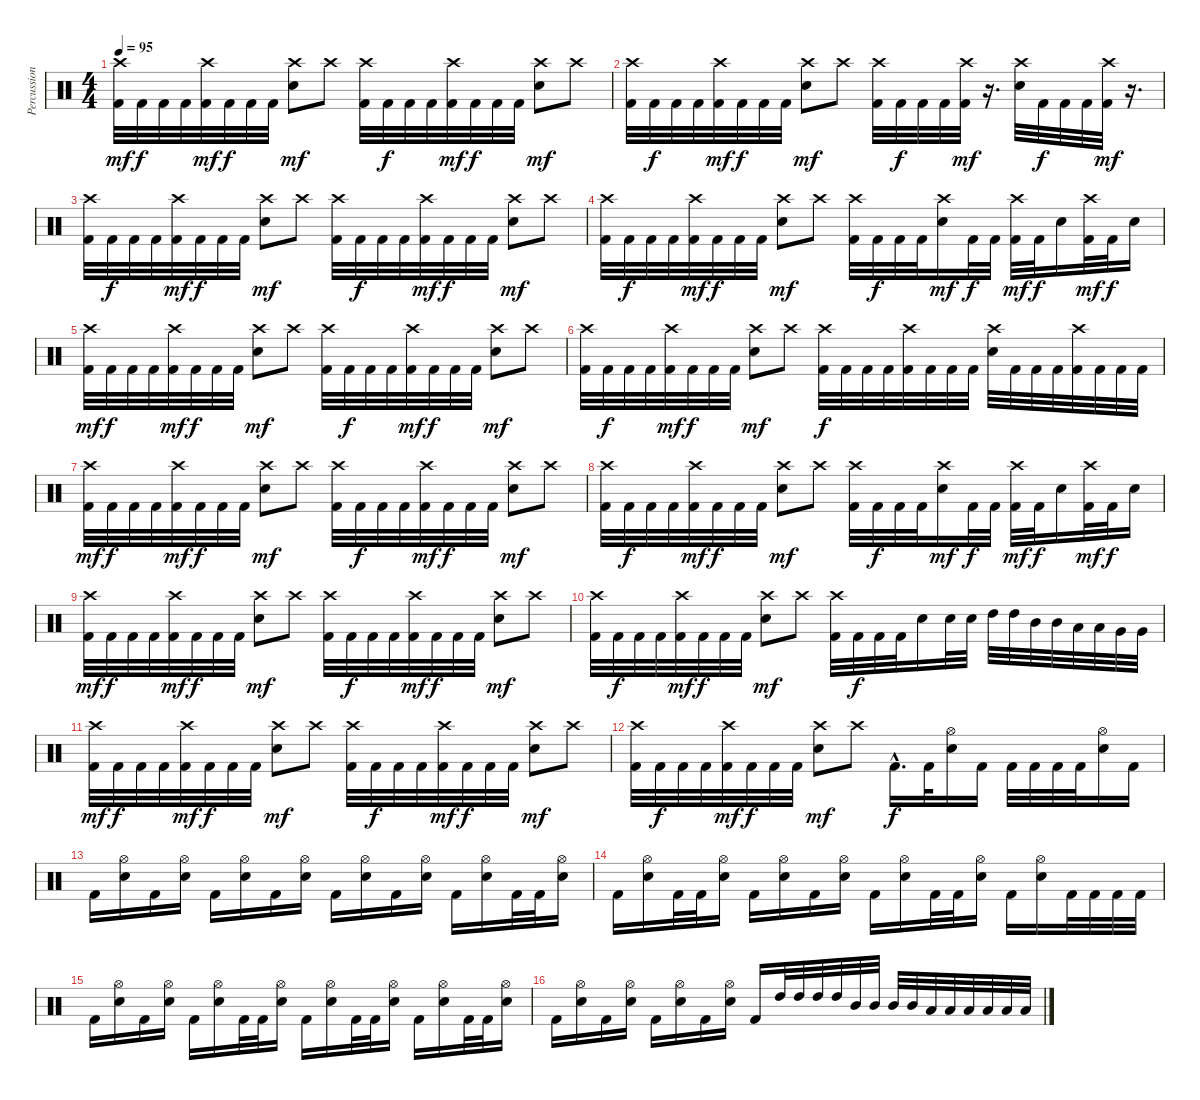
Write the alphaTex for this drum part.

\track ("Percussion" "Percussion") {instrument percussion}
\staff {score}
\articulation defaults
\ts (4 4)
\tempo 95
\clef neutral
\ks c
("Crash high (hit)" "Kick (hit) 2").32{dy mf} "Kick (hit) 2".32{dy f} "Kick (hit) 2".32 "Kick (hit) 2".32 ("Crash high (hit)" "Kick (hit) 2").32{dy mf} "Kick (hit) 2".32{dy f} "Kick (hit) 2".32 "Kick (hit) 2".32 ("Crash high (hit)" "Electric Snare (hit)").8{dy mf} "Crash high (hit)".8 ("Crash high (hit)" "Kick (hit) 2").32 "Kick (hit) 2".32{dy f} "Kick (hit) 2".32 "Kick (hit) 2".32 ("Crash high (hit)" "Kick (hit) 2").32{dy mf} "Kick (hit) 2".32{dy f} "Kick (hit) 2".32 "Kick (hit) 2".32 ("Crash high (hit)" "Electric Snare (hit)").8{dy mf} "Crash high (hit)".8 |
("Crash high (hit)" "Kick (hit) 2").32 "Kick (hit) 2".32{dy f} "Kick (hit) 2".32 "Kick (hit) 2".32 ("Crash high (hit)" "Kick (hit) 2").32{dy mf} "Kick (hit) 2".32{dy f} "Kick (hit) 2".32 "Kick (hit) 2".32 ("Crash high (hit)" "Electric Snare (hit)").8{dy mf} "Crash high (hit)".8 ("Crash high (hit)" "Kick (hit) 2").32 "Kick (hit) 2".32{dy f} "Kick (hit) 2".32 "Kick (hit) 2".32 ("Crash high (hit)" "Kick (hit) 2").32{dy mf} r.16{d} ("Crash high (hit)" "Electric Snare (hit)").32 "Kick (hit) 2".32{dy f} "Kick (hit) 2".32 "Kick (hit) 2".32 ("Crash high (hit)" "Kick (hit) 2").32{dy mf} r.16{d} |
("Crash high (hit)" "Kick (hit) 2").32 "Kick (hit) 2".32{dy f} "Kick (hit) 2".32 "Kick (hit) 2".32 ("Crash high (hit)" "Kick (hit) 2").32{dy mf} "Kick (hit) 2".32{dy f} "Kick (hit) 2".32 "Kick (hit) 2".32 ("Crash high (hit)" "Electric Snare (hit)").8{dy mf} "Crash high (hit)".8 ("Crash high (hit)" "Kick (hit) 2").32 "Kick (hit) 2".32{dy f} "Kick (hit) 2".32 "Kick (hit) 2".32 ("Crash high (hit)" "Kick (hit) 2").32{dy mf} "Kick (hit) 2".32{dy f} "Kick (hit) 2".32 "Kick (hit) 2".32 ("Crash high (hit)" "Electric Snare (hit)").8{dy mf} "Crash high (hit)".8 |
("Crash high (hit)" "Kick (hit) 2").32 "Kick (hit) 2".32{dy f} "Kick (hit) 2".32 "Kick (hit) 2".32 ("Crash high (hit)" "Kick (hit) 2").32{dy mf} "Kick (hit) 2".32{dy f} "Kick (hit) 2".32 "Kick (hit) 2".32 ("Crash high (hit)" "Electric Snare (hit)").8{dy mf} "Crash high (hit)".8 ("Crash high (hit)" "Kick (hit) 2").32 "Kick (hit) 2".32{dy f} "Kick (hit) 2".32 "Kick (hit) 2".32 ("Crash high (hit)" "Electric Snare (hit)").16{dy mf} "Kick (hit) 2".32{dy f} "Kick (hit) 2".32 ("Crash high (hit)" "Kick (hit) 2").32{dy mf} "Kick (hit) 2".32{dy f} "Electric Snare (hit)".16 ("Crash high (hit)" "Kick (hit) 2").32{dy mf} "Kick (hit) 2".32{dy f} "Electric Snare (hit)".16 |
("Crash high (hit)" "Kick (hit) 2").32{dy mf} "Kick (hit) 2".32{dy f} "Kick (hit) 2".32 "Kick (hit) 2".32 ("Crash high (hit)" "Kick (hit) 2").32{dy mf} "Kick (hit) 2".32{dy f} "Kick (hit) 2".32 "Kick (hit) 2".32 ("Crash high (hit)" "Electric Snare (hit)").8{dy mf} "Crash high (hit)".8 ("Crash high (hit)" "Kick (hit) 2").32 "Kick (hit) 2".32{dy f} "Kick (hit) 2".32 "Kick (hit) 2".32 ("Crash high (hit)" "Kick (hit) 2").32{dy mf} "Kick (hit) 2".32{dy f} "Kick (hit) 2".32 "Kick (hit) 2".32 ("Crash high (hit)" "Electric Snare (hit)").8{dy mf} "Crash high (hit)".8 |
("Crash high (hit)" "Kick (hit) 2").32 "Kick (hit) 2".32{dy f} "Kick (hit) 2".32 "Kick (hit) 2".32 ("Crash high (hit)" "Kick (hit) 2").32{dy mf} "Kick (hit) 2".32{dy f} "Kick (hit) 2".32 "Kick (hit) 2".32 ("Crash high (hit)" "Electric Snare (hit)").8{dy mf} "Crash high (hit)".8 ("Crash high (hit)" "Kick (hit) 2").32{dy f} "Kick (hit) 2".32 "Kick (hit) 2".32 "Kick (hit) 2".32 ("Crash high (hit)" "Kick (hit) 2").32 "Kick (hit) 2".32 "Kick (hit) 2".32 "Kick (hit) 2".32 ("Crash high (hit)" "Electric Snare (hit)").32 "Kick (hit) 2".32 "Kick (hit) 2".32 "Kick (hit) 2".32 ("Crash high (hit)" "Kick (hit) 2").32 "Kick (hit) 2".32 "Kick (hit) 2".32 "Kick (hit) 2".32 |
("Crash high (hit)" "Kick (hit) 2").32{dy mf} "Kick (hit) 2".32{dy f} "Kick (hit) 2".32 "Kick (hit) 2".32 ("Crash high (hit)" "Kick (hit) 2").32{dy mf} "Kick (hit) 2".32{dy f} "Kick (hit) 2".32 "Kick (hit) 2".32 ("Crash high (hit)" "Electric Snare (hit)").8{dy mf} "Crash high (hit)".8 ("Crash high (hit)" "Kick (hit) 2").32 "Kick (hit) 2".32{dy f} "Kick (hit) 2".32 "Kick (hit) 2".32 ("Crash high (hit)" "Kick (hit) 2").32{dy mf} "Kick (hit) 2".32{dy f} "Kick (hit) 2".32 "Kick (hit) 2".32 ("Crash high (hit)" "Electric Snare (hit)").8{dy mf} "Crash high (hit)".8 |
("Crash high (hit)" "Kick (hit) 2").32 "Kick (hit) 2".32{dy f} "Kick (hit) 2".32 "Kick (hit) 2".32 ("Crash high (hit)" "Kick (hit) 2").32{dy mf} "Kick (hit) 2".32{dy f} "Kick (hit) 2".32 "Kick (hit) 2".32 ("Crash high (hit)" "Electric Snare (hit)").8{dy mf} "Crash high (hit)".8 ("Crash high (hit)" "Kick (hit) 2").32 "Kick (hit) 2".32{dy f} "Kick (hit) 2".32 "Kick (hit) 2".32 ("Crash high (hit)" "Electric Snare (hit)").16{dy mf} "Kick (hit) 2".32{dy f} "Kick (hit) 2".32 ("Crash high (hit)" "Kick (hit) 2").32{dy mf} "Kick (hit) 2".32{dy f} "Electric Snare (hit)".16 ("Crash high (hit)" "Kick (hit) 2").32{dy mf} "Kick (hit) 2".32{dy f} "Electric Snare (hit)".16 |
("Crash high (hit)" "Kick (hit) 2").32{dy mf} "Kick (hit) 2".32{dy f} "Kick (hit) 2".32 "Kick (hit) 2".32 ("Crash high (hit)" "Kick (hit) 2").32{dy mf} "Kick (hit) 2".32{dy f} "Kick (hit) 2".32 "Kick (hit) 2".32 ("Crash high (hit)" "Electric Snare (hit)").8{dy mf} "Crash high (hit)".8 ("Crash high (hit)" "Kick (hit) 2").32 "Kick (hit) 2".32{dy f} "Kick (hit) 2".32 "Kick (hit) 2".32 ("Crash high (hit)" "Kick (hit) 2").32{dy mf} "Kick (hit) 2".32{dy f} "Kick (hit) 2".32 "Kick (hit) 2".32 ("Crash high (hit)" "Electric Snare (hit)").8{dy mf} "Crash high (hit)".8 |
("Crash high (hit)" "Kick (hit) 2").32 "Kick (hit) 2".32{dy f} "Kick (hit) 2".32 "Kick (hit) 2".32 ("Crash high (hit)" "Kick (hit) 2").32{dy mf} "Kick (hit) 2".32{dy f} "Kick (hit) 2".32 "Kick (hit) 2".32 ("Crash high (hit)" "Electric Snare (hit)").8{dy mf} "Crash high (hit)".8 ("Crash high (hit)" "Kick (hit) 2").32 "Kick (hit) 2".32{dy f} "Kick (hit) 2".32 "Kick (hit) 2".32 "Electric Snare (hit)".16 "Electric Snare (hit)".32 "Electric Snare (hit)".32 "High Tom (hit)".32 "High Tom (hit)".32 "Mid Tom (hit)".32 "Mid Tom (hit)".32 "Low Tom (hit)".32 "Low Tom (hit)".32 "Very Low Tom (hit)".32 "Very Low Tom (hit)".32 |
("Crash high (hit)" "Kick (hit) 2").32{dy mf} "Kick (hit) 2".32{dy f} "Kick (hit) 2".32 "Kick (hit) 2".32 ("Crash high (hit)" "Kick (hit) 2").32{dy mf} "Kick (hit) 2".32{dy f} "Kick (hit) 2".32 "Kick (hit) 2".32 ("Crash high (hit)" "Electric Snare (hit)").8{dy mf} "Crash high (hit)".8 ("Crash high (hit)" "Kick (hit) 2").32 "Kick (hit) 2".32{dy f} "Kick (hit) 2".32 "Kick (hit) 2".32 ("Crash high (hit)" "Kick (hit) 2").32{dy mf} "Kick (hit) 2".32{dy f} "Kick (hit) 2".32 "Kick (hit) 2".32 ("Crash high (hit)" "Electric Snare (hit)").8{dy mf} "Crash high (hit)".8 |
("Crash high (hit)" "Kick (hit) 2").32 "Kick (hit) 2".32{dy f} "Kick (hit) 2".32 "Kick (hit) 2".32 ("Crash high (hit)" "Kick (hit) 2").32{dy mf} "Kick (hit) 2".32{dy f} "Kick (hit) 2".32 "Kick (hit) 2".32 ("Crash high (hit)" "Electric Snare (hit)").8{dy mf} "Crash high (hit)".8 "Kick (hit) 2"{hac}.16{d dy f} "Kick (hit) 2".32 ("Hi-Hat (open)" "Electric Snare (hit)").16 "Kick (hit) 2".16 "Kick (hit) 2".32 "Kick (hit) 2".32 "Kick (hit) 2".32 "Kick (hit) 2".32 ("Hi-Hat (open)" "Electric Snare (hit)").16 "Kick (hit) 2".16 |
"Kick (hit) 2".16 ("Hi-Hat (open)" "Electric Snare (hit)").16 "Kick (hit) 2".16 ("Hi-Hat (open)" "Electric Snare (hit)").16 "Kick (hit) 2".16 ("Hi-Hat (open)" "Electric Snare (hit)").16 "Kick (hit) 2".16 ("Hi-Hat (open)" "Electric Snare (hit)").16 "Kick (hit) 2".16 ("Hi-Hat (open)" "Electric Snare (hit)").16 "Kick (hit) 2".16 ("Hi-Hat (open)" "Electric Snare (hit)").16 "Kick (hit) 2".16 ("Hi-Hat (open)" "Electric Snare (hit)").16 "Kick (hit) 2".32 "Kick (hit) 2".32 ("Hi-Hat (open)" "Electric Snare (hit)").16 |
"Kick (hit) 2".16 ("Hi-Hat (open)" "Electric Snare (hit)").16 "Kick (hit) 2".32 "Kick (hit) 2".32 ("Hi-Hat (open)" "Electric Snare (hit)").16 "Kick (hit) 2".16 ("Hi-Hat (open)" "Electric Snare (hit)").16 "Kick (hit) 2".16 ("Hi-Hat (open)" "Electric Snare (hit)").16 "Kick (hit) 2".16 ("Hi-Hat (open)" "Electric Snare (hit)").16 "Kick (hit) 2".32 "Kick (hit) 2".32 ("Hi-Hat (open)" "Electric Snare (hit)").16 "Kick (hit) 2".16 ("Hi-Hat (open)" "Electric Snare (hit)").16 "Kick (hit) 2".32 "Kick (hit) 2".32 "Kick (hit) 2".32 "Kick (hit) 2".32 |
"Kick (hit) 2".16 ("Hi-Hat (open)" "Electric Snare (hit)").16 "Kick (hit) 2".16 ("Hi-Hat (open)" "Electric Snare (hit)").16 "Kick (hit) 2".16 ("Hi-Hat (open)" "Electric Snare (hit)").16 "Kick (hit) 2".32 "Kick (hit) 2".32 ("Hi-Hat (open)" "Electric Snare (hit)").16 "Kick (hit) 2".16 ("Hi-Hat (open)" "Electric Snare (hit)").16 "Kick (hit) 2".32 "Kick (hit) 2".32 ("Hi-Hat (open)" "Electric Snare (hit)").16 "Kick (hit) 2".16 ("Hi-Hat (open)" "Electric Snare (hit)").16 "Kick (hit) 2".32 "Kick (hit) 2".32 ("Hi-Hat (open)" "Electric Snare (hit)").16 |
"Kick (hit) 2".16 ("Hi-Hat (open)" "Electric Snare (hit)").16 "Kick (hit) 2".16 ("Hi-Hat (open)" "Electric Snare (hit)").16 "Kick (hit) 2".16 ("Hi-Hat (open)" "Electric Snare (hit)").16 "Kick (hit) 2".16 ("Hi-Hat (open)" "Electric Snare (hit)").16 "Kick (hit) 2".16 "High Tom (hit)".32 "High Tom (hit)".32 "High Tom (hit)".32 "High Tom (hit)".32 "Mid Tom (hit)".32 "Mid Tom (hit)".32 "Mid Tom (hit)".32 "Mid Tom (hit)".32 "Low Tom (hit)".32 "Low Tom (hit)".32 "Low Tom (hit)".32 "Low Tom (hit)".32 "Low Tom (hit)".32 "Low Tom (hit)".32
